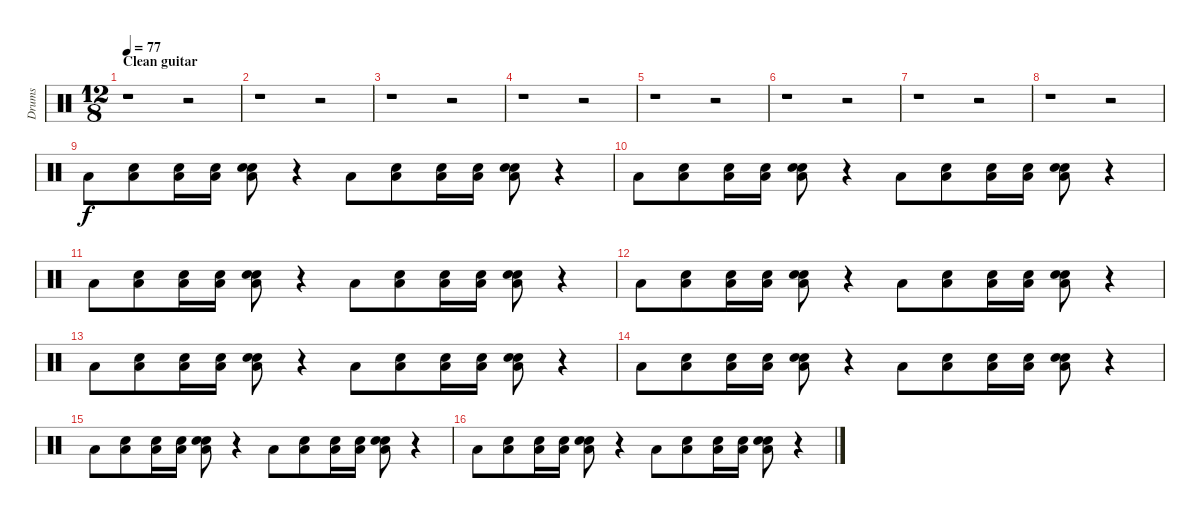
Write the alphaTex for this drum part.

\track ("Drums" "Drums") {instrument percussion}
\staff {score}
\articulation defaults
\ts (12 8)
\section ("" "Clean guitar")
\tempo 77
\clef neutral
\ks c
r.1{dy f} r.2 |
r.1 r.2 |
r.1 r.2 |
r.1 r.2 |
r.1 r.2 |
r.1 r.2 |
r.1 r.2 |
r.1 r.2 |
"Low Floor Tom (hit)".8 ("Snare (hit)" "Low Floor Tom (hit)").8 ("Snare (hit)" "Low Floor Tom (hit)").16 ("Snare (hit)" "Low Floor Tom (hit)").16 ("Snare (hit)" "Electric Snare (hit)" "Low Floor Tom (hit)").8 r.4 "Low Floor Tom (hit)".8 ("Snare (hit)" "Low Floor Tom (hit)").8 ("Snare (hit)" "Low Floor Tom (hit)").16 ("Snare (hit)" "Low Floor Tom (hit)").16 ("Snare (hit)" "Electric Snare (hit)" "Low Floor Tom (hit)").8 r.4 |
"Low Floor Tom (hit)".8 ("Snare (hit)" "Low Floor Tom (hit)").8 ("Snare (hit)" "Low Floor Tom (hit)").16 ("Snare (hit)" "Low Floor Tom (hit)").16 ("Snare (hit)" "Electric Snare (hit)" "Low Floor Tom (hit)").8 r.4 "Low Floor Tom (hit)".8 ("Snare (hit)" "Low Floor Tom (hit)").8 ("Snare (hit)" "Low Floor Tom (hit)").16 ("Snare (hit)" "Low Floor Tom (hit)").16 ("Snare (hit)" "Electric Snare (hit)" "Low Floor Tom (hit)").8 r.4 |
"Low Floor Tom (hit)".8 ("Snare (hit)" "Low Floor Tom (hit)").8 ("Snare (hit)" "Low Floor Tom (hit)").16 ("Snare (hit)" "Low Floor Tom (hit)").16 ("Snare (hit)" "Electric Snare (hit)" "Low Floor Tom (hit)").8 r.4 "Low Floor Tom (hit)".8 ("Snare (hit)" "Low Floor Tom (hit)").8 ("Snare (hit)" "Low Floor Tom (hit)").16 ("Snare (hit)" "Low Floor Tom (hit)").16 ("Snare (hit)" "Electric Snare (hit)" "Low Floor Tom (hit)").8 r.4 |
"Low Floor Tom (hit)".8 ("Snare (hit)" "Low Floor Tom (hit)").8 ("Snare (hit)" "Low Floor Tom (hit)").16 ("Snare (hit)" "Low Floor Tom (hit)").16 ("Snare (hit)" "Electric Snare (hit)" "Low Floor Tom (hit)").8 r.4 "Low Floor Tom (hit)".8 ("Snare (hit)" "Low Floor Tom (hit)").8 ("Snare (hit)" "Low Floor Tom (hit)").16 ("Snare (hit)" "Low Floor Tom (hit)").16 ("Snare (hit)" "Electric Snare (hit)" "Low Floor Tom (hit)").8 r.4 |
"Low Floor Tom (hit)".8 ("Snare (hit)" "Low Floor Tom (hit)").8 ("Snare (hit)" "Low Floor Tom (hit)").16 ("Snare (hit)" "Low Floor Tom (hit)").16 ("Snare (hit)" "Electric Snare (hit)" "Low Floor Tom (hit)").8 r.4 "Low Floor Tom (hit)".8 ("Snare (hit)" "Low Floor Tom (hit)").8 ("Snare (hit)" "Low Floor Tom (hit)").16 ("Snare (hit)" "Low Floor Tom (hit)").16 ("Snare (hit)" "Electric Snare (hit)" "Low Floor Tom (hit)").8 r.4 |
"Low Floor Tom (hit)".8 ("Snare (hit)" "Low Floor Tom (hit)").8 ("Snare (hit)" "Low Floor Tom (hit)").16 ("Snare (hit)" "Low Floor Tom (hit)").16 ("Snare (hit)" "Electric Snare (hit)" "Low Floor Tom (hit)").8 r.4 "Low Floor Tom (hit)".8 ("Snare (hit)" "Low Floor Tom (hit)").8 ("Snare (hit)" "Low Floor Tom (hit)").16 ("Snare (hit)" "Low Floor Tom (hit)").16 ("Snare (hit)" "Electric Snare (hit)" "Low Floor Tom (hit)").8 r.4 |
"Low Floor Tom (hit)".8 ("Snare (hit)" "Low Floor Tom (hit)").8 ("Snare (hit)" "Low Floor Tom (hit)").16 ("Snare (hit)" "Low Floor Tom (hit)").16 ("Snare (hit)" "Electric Snare (hit)" "Low Floor Tom (hit)").8 r.4 "Low Floor Tom (hit)".8 ("Snare (hit)" "Low Floor Tom (hit)").8 ("Snare (hit)" "Low Floor Tom (hit)").16 ("Snare (hit)" "Low Floor Tom (hit)").16 ("Snare (hit)" "Electric Snare (hit)" "Low Floor Tom (hit)").8 r.4 |
"Low Floor Tom (hit)".8 ("Snare (hit)" "Low Floor Tom (hit)").8 ("Snare (hit)" "Low Floor Tom (hit)").16 ("Snare (hit)" "Low Floor Tom (hit)").16 ("Snare (hit)" "Electric Snare (hit)" "Low Floor Tom (hit)").8 r.4 "Low Floor Tom (hit)".8 ("Snare (hit)" "Low Floor Tom (hit)").8 ("Snare (hit)" "Low Floor Tom (hit)").16 ("Snare (hit)" "Low Floor Tom (hit)").16 ("Snare (hit)" "Electric Snare (hit)" "Low Floor Tom (hit)").8 r.4
